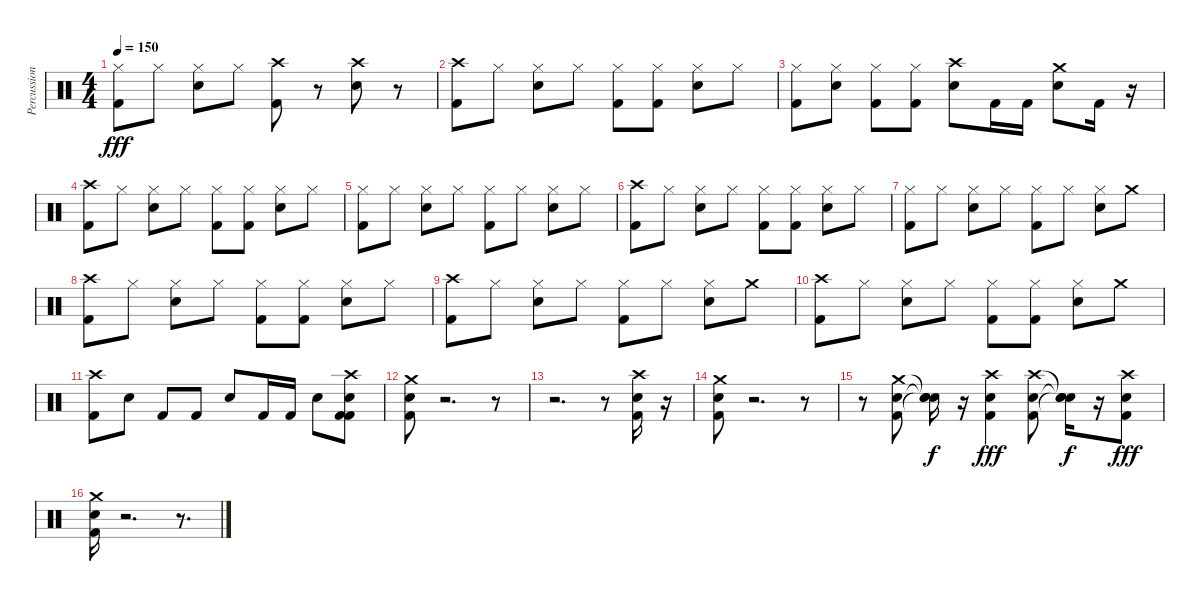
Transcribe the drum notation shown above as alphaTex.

\track ("Percussion" "Percussion") {instrument percussion}
\staff {score}
\articulation defaults
\ts (4 4)
\tempo 150
\clef neutral
\ks c
("Hi-Hat (closed)" "Kick (hit) 2").8{dy fff} "Hi-Hat (closed)".8 ("Hi-Hat (closed)" "Snare (hit) 2").8 "Hi-Hat (closed)".8 ("Crash high (hit)" "Kick (hit) 2").8 r.8 ("Snare (hit) 2" "Crash high (hit)").8 r.8 |
("Kick (hit) 2" "Crash high (hit)").8 "Hi-Hat (closed)".8 ("Hi-Hat (closed)" "Snare (hit) 2").8 "Hi-Hat (closed)".8 ("Hi-Hat (closed)" "Kick (hit) 2").8 ("Hi-Hat (closed)" "Kick (hit) 2").8 ("Hi-Hat (closed)" "Snare (hit) 2").8 "Hi-Hat (closed)".8 |
("Hi-Hat (closed)" "Kick (hit) 2").8 ("Hi-Hat (closed)" "Snare (hit) 2").8 ("Hi-Hat (closed)" "Kick (hit) 2").8 ("Hi-Hat (closed)" "Kick (hit) 2").8 ("Crash high (hit)" "Snare (hit) 2").8 "Kick (hit) 2".16 "Kick (hit) 2".16 ("Crash medium (hit)" "Snare (hit) 2").8 "Kick (hit) 2".16 r.16 |
("Kick (hit) 2" "Crash high (hit)").8 "Hi-Hat (closed)".8 ("Hi-Hat (closed)" "Snare (hit) 2").8 "Hi-Hat (closed)".8 ("Hi-Hat (closed)" "Kick (hit) 2").8 ("Hi-Hat (closed)" "Kick (hit) 2").8 ("Hi-Hat (closed)" "Snare (hit) 2").8 "Hi-Hat (closed)".8 |
("Hi-Hat (closed)" "Kick (hit) 2").8 "Hi-Hat (closed)".8 ("Hi-Hat (closed)" "Snare (hit) 2").8 "Hi-Hat (closed)".8 ("Kick (hit) 2" "Hi-Hat (closed)").8 "Hi-Hat (closed)".8 ("Snare (hit) 2" "Hi-Hat (closed)").8 "Hi-Hat (closed)".8 |
("Kick (hit) 2" "Crash high (hit)").8 "Hi-Hat (closed)".8 ("Hi-Hat (closed)" "Snare (hit) 2").8 "Hi-Hat (closed)".8 ("Hi-Hat (closed)" "Kick (hit) 2").8 ("Hi-Hat (closed)" "Kick (hit) 2").8 ("Hi-Hat (closed)" "Snare (hit) 2").8 "Hi-Hat (closed)".8 |
("Hi-Hat (closed)" "Kick (hit) 2").8 "Hi-Hat (closed)".8 ("Hi-Hat (closed)" "Snare (hit) 2").8 "Hi-Hat (closed)".8 ("Kick (hit) 2" "Hi-Hat (closed)").8 "Hi-Hat (closed)".8 ("Snare (hit) 2" "Hi-Hat (closed)").8 "Crash medium (hit)".8 |
("Kick (hit) 2" "Crash high (hit)").8 "Hi-Hat (closed)".8 ("Hi-Hat (closed)" "Snare (hit) 2").8 "Hi-Hat (closed)".8 ("Hi-Hat (closed)" "Kick (hit) 2").8 ("Hi-Hat (closed)" "Kick (hit) 2").8 ("Hi-Hat (closed)" "Snare (hit) 2").8 "Hi-Hat (closed)".8 |
("Kick (hit) 2" "Crash high (hit)").8 "Hi-Hat (closed)".8 ("Hi-Hat (closed)" "Snare (hit) 2").8 "Hi-Hat (closed)".8 ("Kick (hit) 2" "Hi-Hat (closed)").8 "Hi-Hat (closed)".8 ("Snare (hit) 2" "Hi-Hat (closed)").8 "Crash medium (hit)".8 |
("Kick (hit) 2" "Crash high (hit)").8 "Hi-Hat (closed)".8 ("Hi-Hat (closed)" "Snare (hit) 2").8 "Hi-Hat (closed)".8 ("Hi-Hat (closed)" "Kick (hit) 2").8 ("Hi-Hat (closed)" "Kick (hit) 2").8 ("Hi-Hat (closed)" "Snare (hit) 2").8 "Crash medium (hit)".8 |
("Crash high (hit)" "Kick (hit) 2").8 "Snare (hit) 2".8 "Kick (hit) 2".8 "Kick (hit) 2".8 "Snare (hit) 2".8 "Kick (hit) 2".16 "Kick (hit) 2".16 "Snare (hit) 2".8 ("Crash high (hit)" "Snare (hit) 2" "Kick (hit) 2" "Kick (hit) 2").8 |
("Kick (hit) 2" "Snare (hit) 2" "Crash medium (hit)").8 r.2{d} r.8 |
r.2{d} r.8 ("Kick (hit) 2" "Snare (hit) 2" "Crash high (hit)").16 r.16 |
("Kick (hit) 2" "Snare (hit) 2" "Crash medium (hit)").8 r.2{d} r.8 |
r.8 ("Kick (hit) 2" "Snare (hit) 2" "Crash medium (hit)").8 ("Snare (hit)"{t} "Snare (hit)"{t} "Snare (hit)"{t}).16{dy f} r.16 ("Kick (hit) 2" "Snare (hit) 2" "Crash high (hit)").4{dy fff} ("Kick (hit) 2" "Snare (hit) 2" "Crash high (hit)").8 ("Snare (hit)"{t} "Snare (hit)"{t} "Snare (hit)"{t}).16{dy f} r.16 ("Kick (hit) 2" "Snare (hit) 2" "Crash high (hit)").8{dy fff} |
("Kick (hit) 2" "Snare (hit) 2" "Crash medium (hit)").16 r.2{d} r.8{d}
